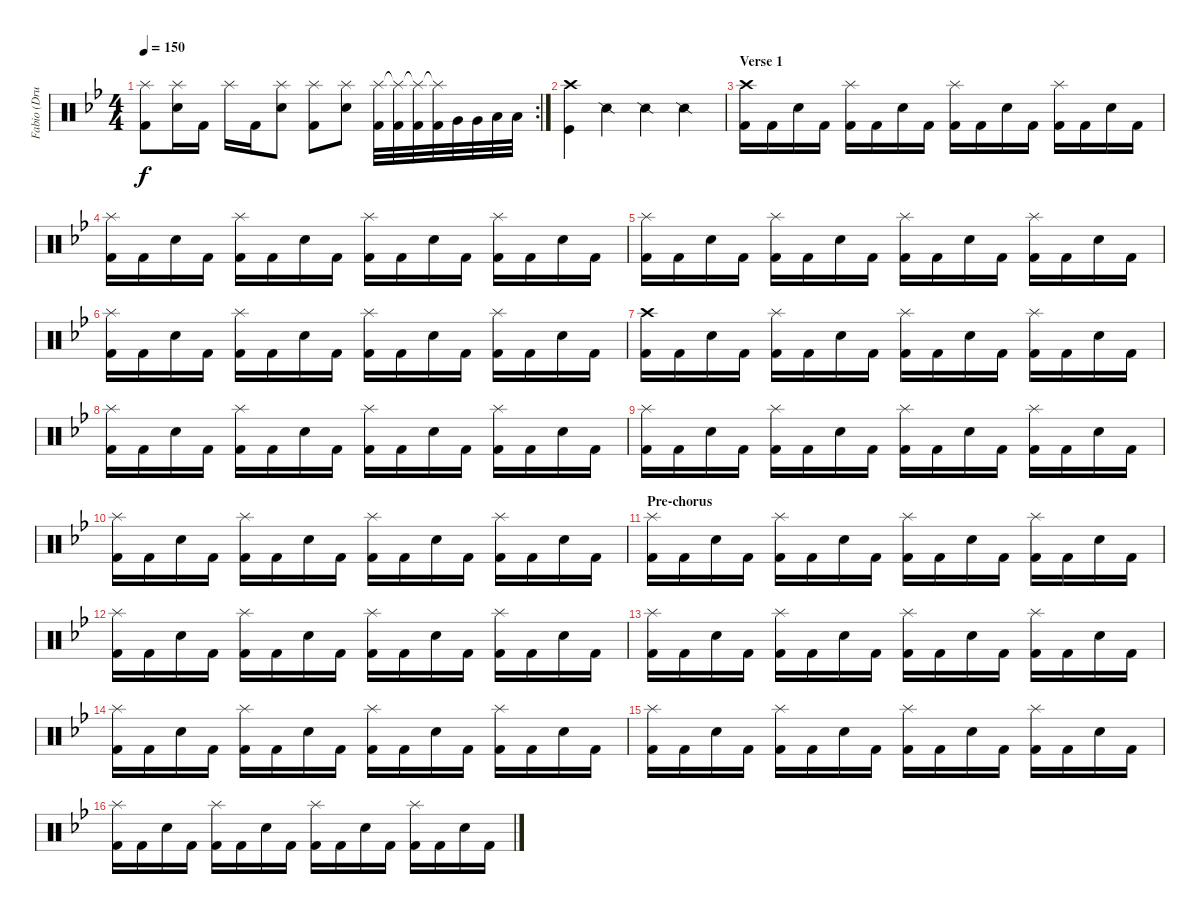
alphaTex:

\track ("Fabio (Drums)" "Fabio (Dru") {instrument percussion}
\staff {score}
\articulation defaults
\rc 2
\ts (4 4)
\tempo 150
\clef neutral
\ks gminor
("Kick (hit) 2" "Splash (hit)").8{dy f} ("Snare (hit) 2" "Splash (hit)").16 "Kick (hit) 2".16 "Splash (hit)".16 "Kick (hit) 2".16 ("Snare (hit) 2" "Splash (hit)").8 ("Kick (hit) 2" "Splash (hit)").8 ("Snare (hit) 2" "Splash (hit)").8 ("Kick (hit) 2" "Splash (hit)").32 ("Kick (hit) 2" "Splash (hit)"{t}).32 ("Kick (hit) 2" "Splash (hit)"{t}).32 ("Kick (hit) 2" "Splash (hit)"{t}).32 "Very Low Tom (hit)".32 "Very Low Tom (hit)".32 "Low Floor Tom (hit)".32 "Low Floor Tom (hit)".32 |
("Kick (hit)" "Crash high (hit)").4 "Snare (side stick) 2".4 "Snare (side stick) 2".4 "Snare (side stick) 2".4 |
\section ("" "Verse 1")
("Crash high (hit)" "Kick (hit) 2").16 "Kick (hit) 2".16 "Snare (hit) 2".16 "Kick (hit) 2".16 ("Splash (hit)" "Kick (hit) 2").16 "Kick (hit) 2".16 "Snare (hit) 2".16 "Kick (hit) 2".16 ("Splash (hit)" "Kick (hit) 2").16 "Kick (hit) 2".16 "Snare (hit) 2".16 "Kick (hit) 2".16 ("Splash (hit)" "Kick (hit) 2").16 "Kick (hit) 2".16 "Snare (hit) 2".16 "Kick (hit) 2".16 |
("Splash (hit)" "Kick (hit) 2").16 "Kick (hit) 2".16 "Snare (hit) 2".16 "Kick (hit) 2".16 ("Splash (hit)" "Kick (hit) 2").16 "Kick (hit) 2".16 "Snare (hit) 2".16 "Kick (hit) 2".16 ("Splash (hit)" "Kick (hit) 2").16 "Kick (hit) 2".16 "Snare (hit) 2".16 "Kick (hit) 2".16 ("Splash (hit)" "Kick (hit) 2").16 "Kick (hit) 2".16 "Snare (hit) 2".16 "Kick (hit) 2".16 |
("Splash (hit)" "Kick (hit) 2").16 "Kick (hit) 2".16 "Snare (hit) 2".16 "Kick (hit) 2".16 ("Splash (hit)" "Kick (hit) 2").16 "Kick (hit) 2".16 "Snare (hit) 2".16 "Kick (hit) 2".16 ("Splash (hit)" "Kick (hit) 2").16 "Kick (hit) 2".16 "Snare (hit) 2".16 "Kick (hit) 2".16 ("Splash (hit)" "Kick (hit) 2").16 "Kick (hit) 2".16 "Snare (hit) 2".16 "Kick (hit) 2".16 |
("Splash (hit)" "Kick (hit) 2").16 "Kick (hit) 2".16 "Snare (hit) 2".16 "Kick (hit) 2".16 ("Splash (hit)" "Kick (hit) 2").16 "Kick (hit) 2".16 "Snare (hit) 2".16 "Kick (hit) 2".16 ("Splash (hit)" "Kick (hit) 2").16 "Kick (hit) 2".16 "Snare (hit) 2".16 "Kick (hit) 2".16 ("Splash (hit)" "Kick (hit) 2").16 "Kick (hit) 2".16 "Snare (hit) 2".16 "Kick (hit) 2".16 |
("Crash high (hit)" "Kick (hit) 2").16 "Kick (hit) 2".16 "Snare (hit) 2".16 "Kick (hit) 2".16 ("Splash (hit)" "Kick (hit) 2").16 "Kick (hit) 2".16 "Snare (hit) 2".16 "Kick (hit) 2".16 ("Splash (hit)" "Kick (hit) 2").16 "Kick (hit) 2".16 "Snare (hit) 2".16 "Kick (hit) 2".16 ("Splash (hit)" "Kick (hit) 2").16 "Kick (hit) 2".16 "Snare (hit) 2".16 "Kick (hit) 2".16 |
("Splash (hit)" "Kick (hit) 2").16 "Kick (hit) 2".16 "Snare (hit) 2".16 "Kick (hit) 2".16 ("Splash (hit)" "Kick (hit) 2").16 "Kick (hit) 2".16 "Snare (hit) 2".16 "Kick (hit) 2".16 ("Splash (hit)" "Kick (hit) 2").16 "Kick (hit) 2".16 "Snare (hit) 2".16 "Kick (hit) 2".16 ("Splash (hit)" "Kick (hit) 2").16 "Kick (hit) 2".16 "Snare (hit) 2".16 "Kick (hit) 2".16 |
("Splash (hit)" "Kick (hit) 2").16 "Kick (hit) 2".16 "Snare (hit) 2".16 "Kick (hit) 2".16 ("Splash (hit)" "Kick (hit) 2").16 "Kick (hit) 2".16 "Snare (hit) 2".16 "Kick (hit) 2".16 ("Splash (hit)" "Kick (hit) 2").16 "Kick (hit) 2".16 "Snare (hit) 2".16 "Kick (hit) 2".16 ("Splash (hit)" "Kick (hit) 2").16 "Kick (hit) 2".16 "Snare (hit) 2".16 "Kick (hit) 2".16 |
("Splash (hit)" "Kick (hit) 2").16 "Kick (hit) 2".16 "Snare (hit) 2".16 "Kick (hit) 2".16 ("Splash (hit)" "Kick (hit) 2").16 "Kick (hit) 2".16 "Snare (hit) 2".16 "Kick (hit) 2".16 ("Splash (hit)" "Kick (hit) 2").16 "Kick (hit) 2".16 "Snare (hit) 2".16 "Kick (hit) 2".16 ("Splash (hit)" "Kick (hit) 2").16 "Kick (hit) 2".16 "Snare (hit) 2".16 "Kick (hit) 2".16 |
\section ("" "Pre-chorus")
("Splash (hit)" "Kick (hit) 2").16 "Kick (hit) 2".16 "Snare (hit) 2".16 "Kick (hit) 2".16 ("Splash (hit)" "Kick (hit) 2").16 "Kick (hit) 2".16 "Snare (hit) 2".16 "Kick (hit) 2".16 ("Splash (hit)" "Kick (hit) 2").16 "Kick (hit) 2".16 "Snare (hit) 2".16 "Kick (hit) 2".16 ("Splash (hit)" "Kick (hit) 2").16 "Kick (hit) 2".16 "Snare (hit) 2".16 "Kick (hit) 2".16 |
("Splash (hit)" "Kick (hit) 2").16 "Kick (hit) 2".16 "Snare (hit) 2".16 "Kick (hit) 2".16 ("Splash (hit)" "Kick (hit) 2").16 "Kick (hit) 2".16 "Snare (hit) 2".16 "Kick (hit) 2".16 ("Splash (hit)" "Kick (hit) 2").16 "Kick (hit) 2".16 "Snare (hit) 2".16 "Kick (hit) 2".16 ("Splash (hit)" "Kick (hit) 2").16 "Kick (hit) 2".16 "Snare (hit) 2".16 "Kick (hit) 2".16 |
("Splash (hit)" "Kick (hit) 2").16 "Kick (hit) 2".16 "Snare (hit) 2".16 "Kick (hit) 2".16 ("Splash (hit)" "Kick (hit) 2").16 "Kick (hit) 2".16 "Snare (hit) 2".16 "Kick (hit) 2".16 ("Splash (hit)" "Kick (hit) 2").16 "Kick (hit) 2".16 "Snare (hit) 2".16 "Kick (hit) 2".16 ("Splash (hit)" "Kick (hit) 2").16 "Kick (hit) 2".16 "Snare (hit) 2".16 "Kick (hit) 2".16 |
("Splash (hit)" "Kick (hit) 2").16 "Kick (hit) 2".16 "Snare (hit) 2".16 "Kick (hit) 2".16 ("Splash (hit)" "Kick (hit) 2").16 "Kick (hit) 2".16 "Snare (hit) 2".16 "Kick (hit) 2".16 ("Splash (hit)" "Kick (hit) 2").16 "Kick (hit) 2".16 "Snare (hit) 2".16 "Kick (hit) 2".16 ("Splash (hit)" "Kick (hit) 2").16 "Kick (hit) 2".16 "Snare (hit) 2".16 "Kick (hit) 2".16 |
("Splash (hit)" "Kick (hit) 2").16 "Kick (hit) 2".16 "Snare (hit) 2".16 "Kick (hit) 2".16 ("Splash (hit)" "Kick (hit) 2").16 "Kick (hit) 2".16 "Snare (hit) 2".16 "Kick (hit) 2".16 ("Splash (hit)" "Kick (hit) 2").16 "Kick (hit) 2".16 "Snare (hit) 2".16 "Kick (hit) 2".16 ("Splash (hit)" "Kick (hit) 2").16 "Kick (hit) 2".16 "Snare (hit) 2".16 "Kick (hit) 2".16 |
("Splash (hit)" "Kick (hit) 2").16 "Kick (hit) 2".16 "Snare (hit) 2".16 "Kick (hit) 2".16 ("Splash (hit)" "Kick (hit) 2").16 "Kick (hit) 2".16 "Snare (hit) 2".16 "Kick (hit) 2".16 ("Splash (hit)" "Kick (hit) 2").16 "Kick (hit) 2".16 "Snare (hit) 2".16 "Kick (hit) 2".16 ("Splash (hit)" "Kick (hit) 2").16 "Kick (hit) 2".16 "Snare (hit) 2".16 "Kick (hit) 2".16
